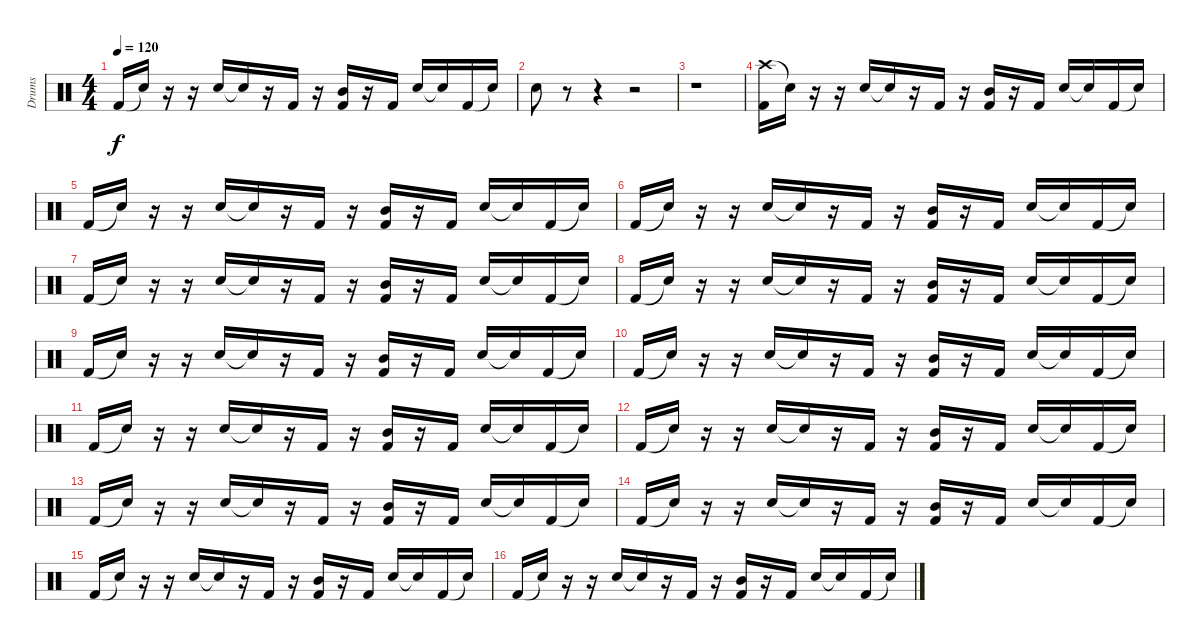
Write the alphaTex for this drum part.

\track ("Drums" "Drums") {instrument percussion}
\staff {score}
\articulation defaults
\ts (4 4)
\tempo 120
\clef neutral
\ks c "Kick (hit) 2".16{dy f} "Snare (hit)"{t}.16
r.16 r.16 "Snare (hit) 2".16 "Snare (hit)"{t}.16 r.16 "Kick (hit) 2".16 r.16 ("Mid Tom (hit)" "Kick (hit) 2").16 r.16 "Kick (hit) 2".16 "Snare (hit) 2".16 "Snare (hit)"{t}.16 "Kick (hit) 2".16 "Snare (hit)"{t}.16 |
"Snare (hit) 2".8 r.8 r.4 r.2 |
r.1 |
("Crash high (hit)" "Kick (hit) 2").16 "Snare (hit)"{t}.16 r.16 r.16 "Snare (hit) 2".16 "Snare (hit)"{t}.16 r.16 "Kick (hit) 2".16 r.16 ("Mid Tom (hit)" "Kick (hit) 2").16 r.16 "Kick (hit) 2".16 "Snare (hit) 2".16 "Snare (hit)"{t}.16 "Kick (hit) 2".16 "Snare (hit)"{t}.16 |
"Kick (hit) 2".16 "Snare (hit)"{t}.16 r.16 r.16 "Snare (hit) 2".16 "Snare (hit)"{t}.16 r.16 "Kick (hit) 2".16 r.16 ("Mid Tom (hit)" "Kick (hit) 2").16 r.16 "Kick (hit) 2".16 "Snare (hit) 2".16 "Snare (hit)"{t}.16 "Kick (hit) 2".16 "Snare (hit)"{t}.16 |
"Kick (hit) 2".16 "Snare (hit)"{t}.16 r.16 r.16 "Snare (hit) 2".16 "Snare (hit)"{t}.16 r.16 "Kick (hit) 2".16 r.16 ("Mid Tom (hit)" "Kick (hit) 2").16 r.16 "Kick (hit) 2".16 "Snare (hit) 2".16 "Snare (hit)"{t}.16 "Kick (hit) 2".16 "Snare (hit)"{t}.16 |
"Kick (hit) 2".16 "Snare (hit)"{t}.16 r.16 r.16 "Snare (hit) 2".16 "Snare (hit)"{t}.16 r.16 "Kick (hit) 2".16 r.16 ("Mid Tom (hit)" "Kick (hit) 2").16 r.16 "Kick (hit) 2".16 "Snare (hit) 2".16 "Snare (hit)"{t}.16 "Kick (hit) 2".16 "Snare (hit)"{t}.16 |
"Kick (hit) 2".16 "Snare (hit)"{t}.16 r.16 r.16 "Snare (hit) 2".16 "Snare (hit)"{t}.16 r.16 "Kick (hit) 2".16 r.16 ("Mid Tom (hit)" "Kick (hit) 2").16 r.16 "Kick (hit) 2".16 "Snare (hit) 2".16 "Snare (hit)"{t}.16 "Kick (hit) 2".16 "Snare (hit)"{t}.16 |
"Kick (hit) 2".16 "Snare (hit)"{t}.16 r.16 r.16 "Snare (hit) 2".16 "Snare (hit)"{t}.16 r.16 "Kick (hit) 2".16 r.16 ("Mid Tom (hit)" "Kick (hit) 2").16 r.16 "Kick (hit) 2".16 "Snare (hit) 2".16 "Snare (hit)"{t}.16 "Kick (hit) 2".16 "Snare (hit)"{t}.16 |
"Kick (hit) 2".16 "Snare (hit)"{t}.16 r.16 r.16 "Snare (hit) 2".16 "Snare (hit)"{t}.16 r.16 "Kick (hit) 2".16 r.16 ("Mid Tom (hit)" "Kick (hit) 2").16 r.16 "Kick (hit) 2".16 "Snare (hit) 2".16 "Snare (hit)"{t}.16 "Kick (hit) 2".16 "Snare (hit)"{t}.16 |
"Kick (hit) 2".16 "Snare (hit)"{t}.16 r.16 r.16 "Snare (hit) 2".16 "Snare (hit)"{t}.16 r.16 "Kick (hit) 2".16 r.16 ("Mid Tom (hit)" "Kick (hit) 2").16 r.16 "Kick (hit) 2".16 "Snare (hit) 2".16 "Snare (hit)"{t}.16 "Kick (hit) 2".16 "Snare (hit)"{t}.16 |
"Kick (hit) 2".16 "Snare (hit)"{t}.16 r.16 r.16 "Snare (hit) 2".16 "Snare (hit)"{t}.16 r.16 "Kick (hit) 2".16 r.16 ("Mid Tom (hit)" "Kick (hit) 2").16 r.16 "Kick (hit) 2".16 "Snare (hit) 2".16 "Snare (hit)"{t}.16 "Kick (hit) 2".16 "Snare (hit)"{t}.16 |
"Kick (hit) 2".16 "Snare (hit)"{t}.16 r.16 r.16 "Snare (hit) 2".16 "Snare (hit)"{t}.16 r.16 "Kick (hit) 2".16 r.16 ("Mid Tom (hit)" "Kick (hit) 2").16 r.16 "Kick (hit) 2".16 "Snare (hit) 2".16 "Snare (hit)"{t}.16 "Kick (hit) 2".16 "Snare (hit)"{t}.16 |
"Kick (hit) 2".16 "Snare (hit)"{t}.16 r.16 r.16 "Snare (hit) 2".16 "Snare (hit)"{t}.16 r.16 "Kick (hit) 2".16 r.16 ("Mid Tom (hit)" "Kick (hit) 2").16 r.16 "Kick (hit) 2".16 "Snare (hit) 2".16 "Snare (hit)"{t}.16 "Kick (hit) 2".16 "Snare (hit)"{t}.16 |
"Kick (hit) 2".16 "Snare (hit)"{t}.16 r.16 r.16 "Snare (hit) 2".16 "Snare (hit)"{t}.16 r.16 "Kick (hit) 2".16 r.16 ("Mid Tom (hit)" "Kick (hit) 2").16 r.16 "Kick (hit) 2".16 "Snare (hit) 2".16 "Snare (hit)"{t}.16 "Kick (hit) 2".16 "Snare (hit)"{t}.16 |
"Kick (hit) 2".16 "Snare (hit)"{t}.16 r.16 r.16 "Snare (hit) 2".16 "Snare (hit)"{t}.16 r.16 "Kick (hit) 2".16 r.16 ("Mid Tom (hit)" "Kick (hit) 2").16 r.16 "Kick (hit) 2".16 "Snare (hit) 2".16 "Snare (hit)"{t}.16 "Kick (hit) 2".16 "Snare (hit)"{t}.16
